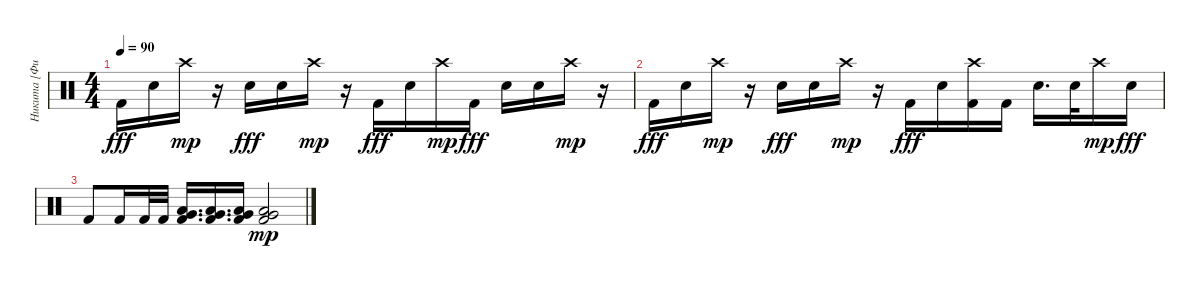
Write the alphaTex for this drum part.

\track ("Никита [Фил]" "Никита [Фи") {instrument percussion}
\staff {score}
\articulation defaults
\ts (4 4)
\tempo 90
\clef neutral
\ks c "Kick (hit) 2".16{dy fff} "Electric Snare (hit)".16 "Crash high (hit)".16{dy mp}
r.16 "Electric Snare (hit)".16{dy fff} "Electric Snare (hit)".16 "Crash high (hit)".16{dy mp} r.16 "Kick (hit) 2".16{dy fff} "Electric Snare (hit)".16 "Crash high (hit)".16{dy mp} "Kick (hit) 2".16{dy fff} "Electric Snare (hit)".16 "Electric Snare (hit)".16 "Crash high (hit)".16{dy mp} r.16 |
"Kick (hit) 2".16{dy fff} "Electric Snare (hit)".16 "Crash high (hit)".16{dy mp} r.16 "Electric Snare (hit)".16{dy fff} "Electric Snare (hit)".16 "Crash high (hit)".16{dy mp} r.16 "Kick (hit) 2".16{dy fff} "Electric Snare (hit)".16 ("Crash high (hit)" "Kick (hit) 2").16 "Kick (hit) 2".16 "Electric Snare (hit)".16{d} "Electric Snare (hit)".32 "Crash high (hit)".16{dy mp} "Electric Snare (hit)".16{dy fff} |
"Kick (hit) 2".8 "Kick (hit) 2".16 "Kick (hit) 2".32 "Kick (hit) 2".32 ("Very Low Tom (hit)" "Low Floor Tom (hit)" "Kick (hit) 2").16{d} ("Very Low Tom (hit)" "Low Floor Tom (hit)" "Kick (hit) 2").16{d} ("Very Low Tom (hit)" "Low Floor Tom (hit)" "Kick (hit) 2").16 ("Very Low Tom (hit)" "Low Floor Tom (hit)" "Kick (hit) 2").2{dy mp}
